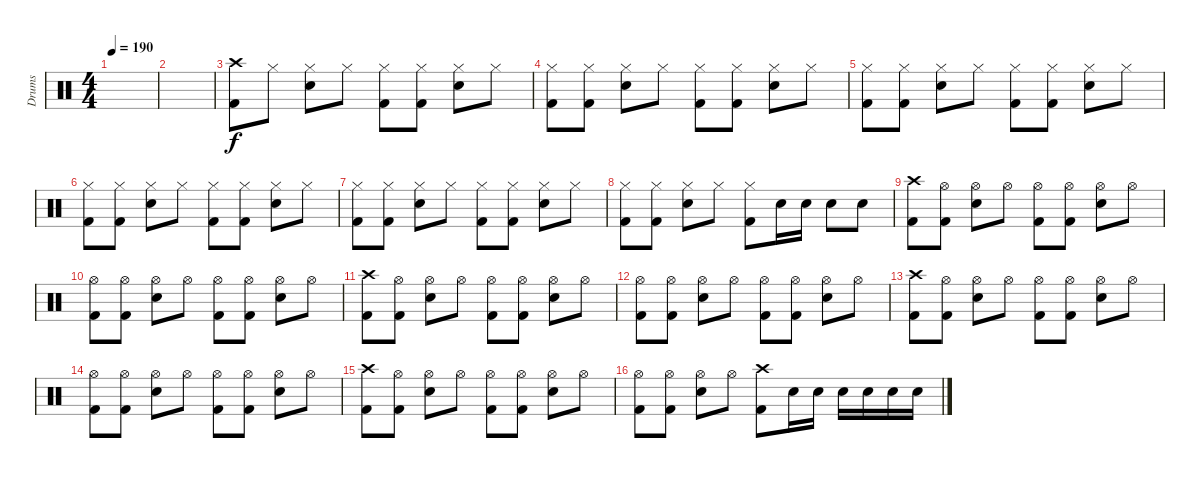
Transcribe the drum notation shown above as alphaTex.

\track ("Drums" "Drums") {instrument percussion}
\staff {score}
\articulation defaults
\ts (4 4)
\tempo 190
\clef neutral
\ks c
|
|
("Crash high (hit)" "Kick (hit) 2").8 "Hi-Hat (closed)".8 ("Hi-Hat (closed)" "Electric Snare (hit)").8 "Hi-Hat (closed)".8 ("Hi-Hat (closed)" "Kick (hit) 2").8 ("Hi-Hat (closed)" "Kick (hit) 2").8 ("Hi-Hat (closed)" "Electric Snare (hit)").8 "Hi-Hat (closed)".8 |
("Hi-Hat (closed)" "Kick (hit) 2").8 ("Hi-Hat (closed)" "Kick (hit) 2").8 ("Hi-Hat (closed)" "Electric Snare (hit)").8 "Hi-Hat (closed)".8 ("Hi-Hat (closed)" "Kick (hit) 2").8 ("Hi-Hat (closed)" "Kick (hit) 2").8 ("Hi-Hat (closed)" "Electric Snare (hit)").8 "Hi-Hat (closed)".8 |
("Hi-Hat (closed)" "Kick (hit) 2").8 ("Hi-Hat (closed)" "Kick (hit) 2").8 ("Hi-Hat (closed)" "Electric Snare (hit)").8 "Hi-Hat (closed)".8 ("Hi-Hat (closed)" "Kick (hit) 2").8 ("Hi-Hat (closed)" "Kick (hit) 2").8 ("Hi-Hat (closed)" "Electric Snare (hit)").8 "Hi-Hat (closed)".8 |
("Hi-Hat (closed)" "Kick (hit) 2").8 ("Hi-Hat (closed)" "Kick (hit) 2").8 ("Hi-Hat (closed)" "Electric Snare (hit)").8 "Hi-Hat (closed)".8 ("Hi-Hat (closed)" "Kick (hit) 2").8 ("Hi-Hat (closed)" "Kick (hit) 2").8 ("Hi-Hat (closed)" "Electric Snare (hit)").8 "Hi-Hat (closed)".8 |
("Hi-Hat (closed)" "Kick (hit) 2").8 ("Hi-Hat (closed)" "Kick (hit) 2").8 ("Hi-Hat (closed)" "Electric Snare (hit)").8 "Hi-Hat (closed)".8 ("Hi-Hat (closed)" "Kick (hit) 2").8 ("Hi-Hat (closed)" "Kick (hit) 2").8 ("Hi-Hat (closed)" "Electric Snare (hit)").8 "Hi-Hat (closed)".8 |
("Hi-Hat (closed)" "Kick (hit) 2").8 ("Hi-Hat (closed)" "Kick (hit) 2").8 ("Hi-Hat (closed)" "Electric Snare (hit)").8 "Hi-Hat (closed)".8 ("Hi-Hat (closed)" "Kick (hit) 2").8 "Electric Snare (hit)".16 "Electric Snare (hit)".16 "Electric Snare (hit)".8 "Electric Snare (hit)".8 |
("Crash high (hit)" "Kick (hit) 2").8 ("Hi-Hat (open)" "Kick (hit) 2").8 ("Hi-Hat (open)" "Electric Snare (hit)").8 "Hi-Hat (open)".8 ("Hi-Hat (open)" "Kick (hit) 2").8 ("Hi-Hat (open)" "Kick (hit) 2").8 ("Hi-Hat (open)" "Electric Snare (hit)").8 "Hi-Hat (open)".8 |
("Hi-Hat (open)" "Kick (hit) 2").8 ("Hi-Hat (open)" "Kick (hit) 2").8 ("Hi-Hat (open)" "Electric Snare (hit)").8 "Hi-Hat (open)".8 ("Hi-Hat (open)" "Kick (hit) 2").8 ("Hi-Hat (open)" "Kick (hit) 2").8 ("Hi-Hat (open)" "Electric Snare (hit)").8 "Hi-Hat (open)".8 |
("Crash high (hit)" "Kick (hit) 2").8 ("Hi-Hat (open)" "Kick (hit) 2").8 ("Hi-Hat (open)" "Electric Snare (hit)").8 "Hi-Hat (open)".8 ("Hi-Hat (open)" "Kick (hit) 2").8 ("Hi-Hat (open)" "Kick (hit) 2").8 ("Hi-Hat (open)" "Electric Snare (hit)").8 "Hi-Hat (open)".8 |
("Hi-Hat (open)" "Kick (hit) 2").8 ("Hi-Hat (open)" "Kick (hit) 2").8 ("Hi-Hat (open)" "Electric Snare (hit)").8 "Hi-Hat (open)".8 ("Hi-Hat (open)" "Kick (hit) 2").8 ("Hi-Hat (open)" "Kick (hit) 2").8 ("Hi-Hat (open)" "Electric Snare (hit)").8 "Hi-Hat (open)".8 |
("Crash high (hit)" "Kick (hit) 2").8 ("Hi-Hat (open)" "Kick (hit) 2").8 ("Hi-Hat (open)" "Electric Snare (hit)").8 "Hi-Hat (open)".8 ("Hi-Hat (open)" "Kick (hit) 2").8 ("Hi-Hat (open)" "Kick (hit) 2").8 ("Hi-Hat (open)" "Electric Snare (hit)").8 "Hi-Hat (open)".8 |
("Hi-Hat (open)" "Kick (hit) 2").8 ("Hi-Hat (open)" "Kick (hit) 2").8 ("Hi-Hat (open)" "Electric Snare (hit)").8 "Hi-Hat (open)".8 ("Hi-Hat (open)" "Kick (hit) 2").8 ("Hi-Hat (open)" "Kick (hit) 2").8 ("Hi-Hat (open)" "Electric Snare (hit)").8 "Hi-Hat (open)".8 |
("Crash high (hit)" "Kick (hit) 2").8 ("Hi-Hat (open)" "Kick (hit) 2").8 ("Hi-Hat (open)" "Electric Snare (hit)").8 "Hi-Hat (open)".8 ("Hi-Hat (open)" "Kick (hit) 2").8 ("Hi-Hat (open)" "Kick (hit) 2").8 ("Hi-Hat (open)" "Electric Snare (hit)").8 "Hi-Hat (open)".8 |
("Hi-Hat (open)" "Kick (hit) 2").8 ("Hi-Hat (open)" "Kick (hit) 2").8 ("Hi-Hat (open)" "Electric Snare (hit)").8 "Hi-Hat (open)".8 ("Crash high (hit)" "Kick (hit) 2").8 "Electric Snare (hit)".16 "Electric Snare (hit)".16 "Electric Snare (hit)".16 "Electric Snare (hit)".16 "Electric Snare (hit)".16 "Electric Snare (hit)".16
